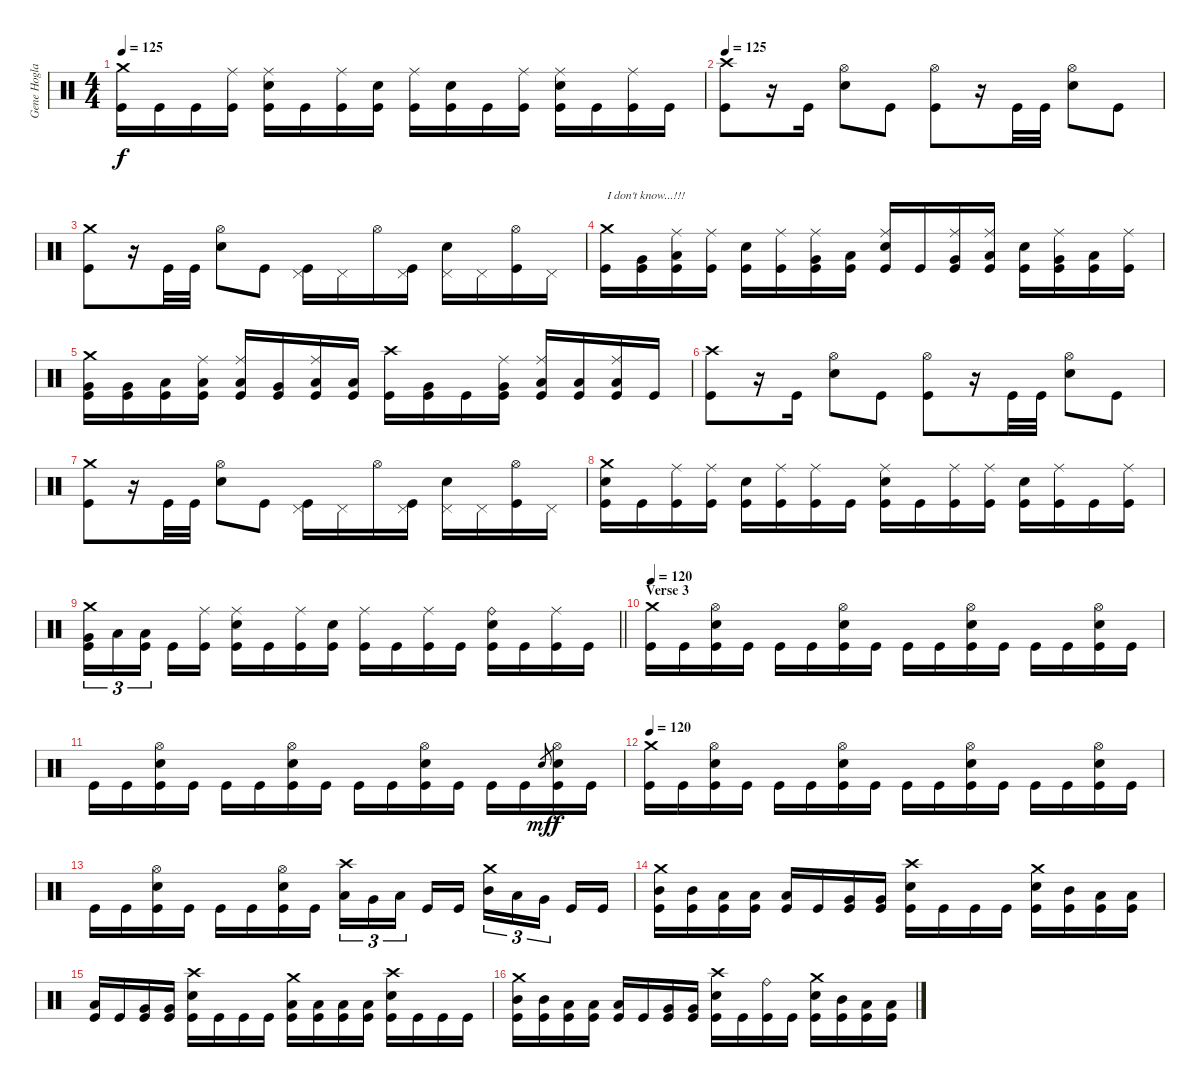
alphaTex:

\track ("Gene Hoglan" "Gene Hogla") {instrument percussion}
\staff {score}
\articulation defaults
\ts (4 4)
\tempo 125
\clef neutral
\ks c
("Crash medium (hit)" "Kick (hit)").16{dy f} "Kick (hit)".16 "Kick (hit)".16 ("Ride (middle)" "Kick (hit)").16 ("Ride (middle)" "Electric Snare (hit)" "Kick (hit)").16 "Kick (hit)".16 ("Ride (middle)" "Kick (hit)").16 ("Electric Snare (hit)" "Kick (hit)").16 ("Ride (middle)" "Kick (hit)").16 ("Electric Snare (hit)" "Kick (hit)").16 "Kick (hit)".16 ("Ride (middle)" "Kick (hit)").16 ("Ride (middle)" "Electric Snare (hit)" "Kick (hit)").16 "Kick (hit)".16 ("Ride (middle)" "Kick (hit)").16 "Kick (hit)".16 |
\tempo 125
("Crash high (hit)" "Kick (hit)").8 r.16 "Kick (hit)".16 ("Hi-Hat (open)" "Electric Snare (hit)").8 "Kick (hit)".8 ("Hi-Hat (open)" "Kick (hit)").8 r.16 "Kick (hit)".32 "Kick (hit)".32 ("Hi-Hat (open)" "Electric Snare (hit)").8 "Kick (hit)".8 |
("Crash medium (hit)" "Kick (hit)").8 r.16 "Kick (hit)".32 "Kick (hit)".32 ("Hi-Hat (open)" "Electric Snare (hit)").8 "Kick (hit)".8 ("Pedal Hi-Hat (hit)" "Kick (hit)").16 "Pedal Hi-Hat (hit)".16 "Hi-Hat (open)".16 ("Pedal Hi-Hat (hit)" "Kick (hit)").16 ("Pedal Hi-Hat (hit)" "Electric Snare (hit)").16 "Pedal Hi-Hat (hit)".16 ("Hi-Hat (open)" "Kick (hit)").16 "Pedal Hi-Hat (hit)".16 |
("Crash medium (hit)" "Kick (hit)").16{txt "I don't know...!!!"} ("Very Low Tom (hit)" "Kick (hit)").16 ("Ride (middle)" "Low Floor Tom (hit)" "Kick (hit)").16 ("Ride (middle)" "Kick (hit)").16 ("Electric Snare (hit)" "Kick (hit)").16 ("Ride (middle)" "Kick (hit)").16 ("Ride (middle)" "Very Low Tom (hit)" "Kick (hit)").16 ("Low Floor Tom (hit)" "Kick (hit)").16 ("Ride (middle)" "Electric Snare (hit)" "Kick (hit)").16 "Kick (hit)".16 ("Ride (middle)" "Very Low Tom (hit)" "Kick (hit)").16 ("Ride (middle)" "Low Floor Tom (hit)" "Kick (hit)").16 ("Electric Snare (hit)" "Kick (hit)").16 ("Ride (middle)" "Very Low Tom (hit)" "Kick (hit)").16 ("Low Floor Tom (hit)" "Kick (hit)").16 ("Ride (middle)" "Kick (hit)").16 |
("Crash medium (hit)" "Very Low Tom (hit)" "Kick (hit)").16 ("Very Low Tom (hit)" "Kick (hit)").16 ("Low Floor Tom (hit)" "Kick (hit)").16 ("Ride (middle)" "Low Floor Tom (hit)" "Kick (hit)").16 ("Ride (middle)" "Low Tom (hit)" "Kick (hit)").16 ("Very Low Tom (hit)" "Kick (hit)").16 ("Ride (middle)" "Low Floor Tom (hit)" "Kick (hit)").16 ("Low Floor Tom (hit)" "Kick (hit)").16 ("Crash high (hit)" "Kick (hit)").16 ("Very Low Tom (hit)" "Kick (hit)").16 "Kick (hit)".16 ("Ride (middle)" "Very Low Tom (hit)" "Kick (hit)").16 ("Ride (middle)" "Low Floor Tom (hit)" "Kick (hit)").16 ("Low Floor Tom (hit)" "Kick (hit)").16 ("Ride (middle)" "Low Tom (hit)" "Kick (hit)").16 "Kick (hit)".16 |
("Crash high (hit)" "Kick (hit)").8 r.16 "Kick (hit)".16 ("Hi-Hat (open)" "Electric Snare (hit)").8 "Kick (hit)".8 ("Hi-Hat (open)" "Kick (hit)").8 r.16 "Kick (hit)".32 "Kick (hit)".32 ("Hi-Hat (open)" "Electric Snare (hit)").8 "Kick (hit)".8 |
("Crash medium (hit)" "Kick (hit)").8 r.16 "Kick (hit)".32 "Kick (hit)".32 ("Hi-Hat (open)" "Electric Snare (hit)").8 "Kick (hit)".8 ("Pedal Hi-Hat (hit)" "Kick (hit)").16 "Pedal Hi-Hat (hit)".16 "Hi-Hat (open)".16 ("Pedal Hi-Hat (hit)" "Kick (hit)").16 ("Pedal Hi-Hat (hit)" "Electric Snare (hit)").16 "Pedal Hi-Hat (hit)".16 ("Hi-Hat (open)" "Kick (hit)").16 "Pedal Hi-Hat (hit)".16 |
("Crash medium (hit)" "Electric Snare (hit)" "Kick (hit)").16 "Kick (hit)".16 ("Ride (middle)" "Kick (hit)").16 ("Ride (middle)" "Kick (hit)").16 ("Electric Snare (hit)" "Kick (hit)").16 ("Ride (middle)" "Kick (hit)").16 ("Ride (middle)" "Kick (hit)").16 "Kick (hit)".16 ("Ride (middle)" "Electric Snare (hit)" "Kick (hit)").16 "Kick (hit)".16 ("Ride (middle)" "Kick (hit)").16 ("Ride (middle)" "Kick (hit)").16 ("Electric Snare (hit)" "Kick (hit)").16 ("Ride (middle)" "Kick (hit)").16 "Kick (hit)".16 ("Ride (middle)" "Kick (hit)").16 |
\barLineRight lightlight
("Crash medium (hit)" "Very Low Tom (hit)" "Kick (hit)").16{tu (3 2)} "Low Floor Tom (hit)".16{tu (3 2)} ("Low Floor Tom (hit)" "Kick (hit)").16{tu (3 2) beam splitsecondary} "Kick (hit)".16 ("Ride (middle)" "Kick (hit)").16 ("Ride (middle)" "Electric Snare (hit)" "Kick (hit)").16 "Kick (hit)".16 ("Ride (middle)" "Kick (hit)").16 ("Electric Snare (hit)" "Kick (hit)").16 ("Ride (middle)" "Kick (hit)").16 "Kick (hit)".16 ("Ride (middle)" "Kick (hit)").16 "Kick (hit)".16 ("Ride (bell)" "Electric Snare (hit)" "Kick (hit)").16 "Kick (hit)".16 ("Ride (middle)" "Kick (hit)").16 "Kick (hit)".16 |
\section ("" "Verse 3")
\tempo 120
("Crash medium (hit)" "Kick (hit)").16 "Kick (hit)".16 ("Hi-Hat (open)" "Electric Snare (hit)" "Kick (hit)").16 "Kick (hit)".16 "Kick (hit)".16 "Kick (hit)".16 ("Hi-Hat (open)" "Electric Snare (hit)" "Kick (hit)").16 "Kick (hit)".16 "Kick (hit)".16 "Kick (hit)".16 ("Hi-Hat (open)" "Electric Snare (hit)" "Kick (hit)").16 "Kick (hit)".16 "Kick (hit)".16 "Kick (hit)".16 ("Hi-Hat (open)" "Electric Snare (hit)" "Kick (hit)").16 "Kick (hit)".16 |
"Kick (hit)".16 "Kick (hit)".16 ("Hi-Hat (open)" "Electric Snare (hit)" "Kick (hit)").16 "Kick (hit)".16 "Kick (hit)".16 "Kick (hit)".16 ("Hi-Hat (open)" "Electric Snare (hit)" "Kick (hit)").16 "Kick (hit)".16 "Kick (hit)".16 "Kick (hit)".16 ("Hi-Hat (open)" "Electric Snare (hit)" "Kick (hit)").16 "Kick (hit)".16 "Kick (hit)".16 "Kick (hit)".16 "Electric Snare (hit)".8{gr dy mf} ("Hi-Hat (open)" "Electric Snare (hit)" "Kick (hit)").16{dy f} "Kick (hit)".16 |
\tempo 120
("Crash medium (hit)" "Kick (hit)").16 "Kick (hit)".16 ("Hi-Hat (open)" "Electric Snare (hit)" "Kick (hit)").16 "Kick (hit)".16 "Kick (hit)".16 "Kick (hit)".16 ("Hi-Hat (open)" "Electric Snare (hit)" "Kick (hit)").16 "Kick (hit)".16 "Kick (hit)".16 "Kick (hit)".16 ("Hi-Hat (open)" "Electric Snare (hit)" "Kick (hit)").16 "Kick (hit)".16 "Kick (hit)".16 "Kick (hit)".16 ("Hi-Hat (open)" "Electric Snare (hit)" "Kick (hit)").16 "Kick (hit)".16 |
"Kick (hit)".16 "Kick (hit)".16 ("Hi-Hat (open)" "Electric Snare (hit)" "Kick (hit)").16 "Kick (hit)".16 "Kick (hit)".16 "Kick (hit)".16 ("Hi-Hat (open)" "Electric Snare (hit)" "Kick (hit)").16 "Kick (hit)".16 ("Crash high (hit)" "Low Tom (hit)").16{tu (3 2)} "Very Low Tom (hit)".16{tu (3 2)} "Low Floor Tom (hit)".16{tu (3 2) beam splitsecondary} "Kick (hit)".16 "Kick (hit)".16 ("Crash medium (hit)" "Mid Tom (hit)").16{tu (3 2)} "Low Tom (hit)".16{tu (3 2)} "Very Low Tom (hit)".16{tu (3 2) beam splitsecondary} "Kick (hit)".16 "Kick (hit)".16 |
("Crash medium (hit)" "Mid Tom (hit)" "Kick (hit)").16 ("Mid Tom (hit)" "Kick (hit)").16 ("Low Tom (hit)" "Kick (hit)").16 ("Low Tom (hit)" "Kick (hit)").16 ("Low Tom (hit)" "Kick (hit)").16 "Kick (hit)".16 ("Very Low Tom (hit)" "Kick (hit)").16 ("Very Low Tom (hit)" "Kick (hit)").16 ("Crash high (hit)" "Electric Snare (hit)" "Kick (hit)").16 "Kick (hit)".16 "Kick (hit)".16 "Kick (hit)".16 ("Crash medium (hit)" "Electric Snare (hit)" "Kick (hit)").16 ("Mid Tom (hit)" "Kick (hit)").16 ("Low Tom (hit)" "Kick (hit)").16 ("Low Tom (hit)" "Kick (hit)").16 |
("Low Tom (hit)" "Kick (hit)").16 "Kick (hit)".16 ("Very Low Tom (hit)" "Kick (hit)").16 ("Very Low Tom (hit)" "Kick (hit)").16 ("Crash high (hit)" "Electric Snare (hit)" "Kick (hit)").16 "Kick (hit)".16 "Kick (hit)".16 "Kick (hit)".16 ("Crash medium (hit)" "Low Tom (hit)" "Kick (hit)").16 ("Low Tom (hit)" "Kick (hit)").16 ("Low Tom (hit)" "Kick (hit)").16 ("Low Tom (hit)" "Kick (hit)").16 ("Crash high (hit)" "Electric Snare (hit)" "Kick (hit)").16 "Kick (hit)".16 "Kick (hit)".16 "Kick (hit)".16 |
("Crash medium (hit)" "Mid Tom (hit)" "Kick (hit)").16 ("Mid Tom (hit)" "Kick (hit)").16 ("Low Tom (hit)" "Kick (hit)").16 ("Low Tom (hit)" "Kick (hit)").16 ("Low Tom (hit)" "Kick (hit)").16 "Kick (hit)".16 ("Very Low Tom (hit)" "Kick (hit)").16 ("Very Low Tom (hit)" "Kick (hit)").16 ("Crash high (hit)" "Electric Snare (hit)" "Kick (hit)").16 "Kick (hit)".16 ("Ride (bell)" "Kick (hit)").16 "Kick (hit)".16 ("Crash medium (hit)" "Electric Snare (hit)" "Kick (hit)").16 ("Mid Tom (hit)" "Kick (hit)").16 ("Low Tom (hit)" "Kick (hit)").16 ("Low Tom (hit)" "Kick (hit)").16
